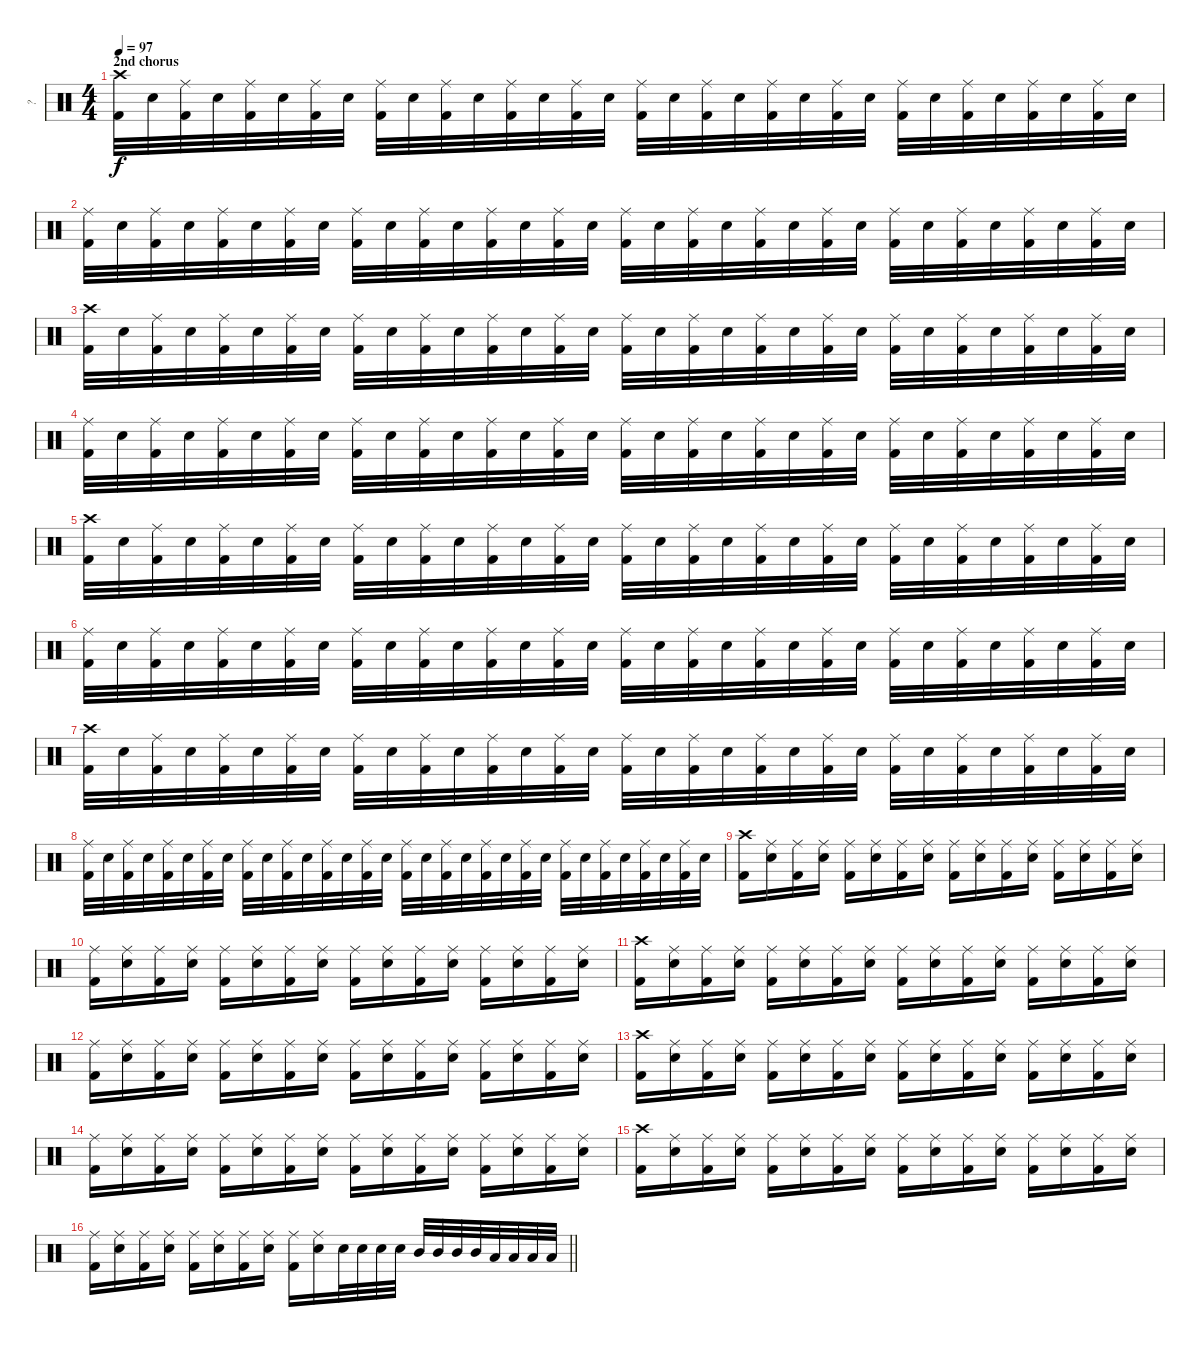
\track ("?" "?") {instrument percussion}
\staff {score}
\articulation defaults
\ts (4 4)
\section ("" "2nd chorus")
\tempo 97
\clef neutral
\ks c
("Crash high (hit)" "Kick (hit) 2").32{dy f} "Electric Snare (hit)".32 ("Ride (middle)" "Kick (hit) 2").32 "Electric Snare (hit)".32 ("Ride (middle)" "Kick (hit) 2").32 "Electric Snare (hit)".32 ("Ride (middle)" "Kick (hit) 2").32 "Electric Snare (hit)".32 ("Ride (middle)" "Kick (hit) 2").32 "Electric Snare (hit)".32 ("Ride (middle)" "Kick (hit) 2").32 "Electric Snare (hit)".32 ("Ride (middle)" "Kick (hit) 2").32 "Electric Snare (hit)".32 ("Ride (middle)" "Kick (hit) 2").32 "Electric Snare (hit)".32 ("Ride (middle)" "Kick (hit) 2").32 "Electric Snare (hit)".32 ("Ride (middle)" "Kick (hit) 2").32 "Electric Snare (hit)".32 ("Ride (middle)" "Kick (hit) 2").32 "Electric Snare (hit)".32 ("Ride (middle)" "Kick (hit) 2").32 "Electric Snare (hit)".32 ("Ride (middle)" "Kick (hit) 2").32 "Electric Snare (hit)".32 ("Ride (middle)" "Kick (hit) 2").32 "Electric Snare (hit)".32 ("Ride (middle)" "Kick (hit) 2").32 "Electric Snare (hit)".32 ("Ride (middle)" "Kick (hit) 2").32 "Electric Snare (hit)".32 |
("Ride (middle)" "Kick (hit) 2").32 "Electric Snare (hit)".32 ("Ride (middle)" "Kick (hit) 2").32 "Electric Snare (hit)".32 ("Ride (middle)" "Kick (hit) 2").32 "Electric Snare (hit)".32 ("Ride (middle)" "Kick (hit) 2").32 "Electric Snare (hit)".32 ("Ride (middle)" "Kick (hit) 2").32 "Electric Snare (hit)".32 ("Ride (middle)" "Kick (hit) 2").32 "Electric Snare (hit)".32 ("Ride (middle)" "Kick (hit) 2").32 "Electric Snare (hit)".32 ("Ride (middle)" "Kick (hit) 2").32 "Electric Snare (hit)".32 ("Ride (middle)" "Kick (hit) 2").32 "Electric Snare (hit)".32 ("Ride (middle)" "Kick (hit) 2").32 "Electric Snare (hit)".32 ("Ride (middle)" "Kick (hit) 2").32 "Electric Snare (hit)".32 ("Ride (middle)" "Kick (hit) 2").32 "Electric Snare (hit)".32 ("Ride (middle)" "Kick (hit) 2").32 "Electric Snare (hit)".32 ("Ride (middle)" "Kick (hit) 2").32 "Electric Snare (hit)".32 ("Ride (middle)" "Kick (hit) 2").32 "Electric Snare (hit)".32 ("Ride (middle)" "Kick (hit) 2").32 "Electric Snare (hit)".32 |
("Crash high (hit)" "Kick (hit) 2").32 "Electric Snare (hit)".32 ("Ride (middle)" "Kick (hit) 2").32 "Electric Snare (hit)".32 ("Ride (middle)" "Kick (hit) 2").32 "Electric Snare (hit)".32 ("Ride (middle)" "Kick (hit) 2").32 "Electric Snare (hit)".32 ("Ride (middle)" "Kick (hit) 2").32 "Electric Snare (hit)".32 ("Ride (middle)" "Kick (hit) 2").32 "Electric Snare (hit)".32 ("Ride (middle)" "Kick (hit) 2").32 "Electric Snare (hit)".32 ("Ride (middle)" "Kick (hit) 2").32 "Electric Snare (hit)".32 ("Ride (middle)" "Kick (hit) 2").32 "Electric Snare (hit)".32 ("Ride (middle)" "Kick (hit) 2").32 "Electric Snare (hit)".32 ("Ride (middle)" "Kick (hit) 2").32 "Electric Snare (hit)".32 ("Ride (middle)" "Kick (hit) 2").32 "Electric Snare (hit)".32 ("Ride (middle)" "Kick (hit) 2").32 "Electric Snare (hit)".32 ("Ride (middle)" "Kick (hit) 2").32 "Electric Snare (hit)".32 ("Ride (middle)" "Kick (hit) 2").32 "Electric Snare (hit)".32 ("Ride (middle)" "Kick (hit) 2").32 "Electric Snare (hit)".32 |
("Ride (middle)" "Kick (hit) 2").32 "Electric Snare (hit)".32 ("Ride (middle)" "Kick (hit) 2").32 "Electric Snare (hit)".32 ("Ride (middle)" "Kick (hit) 2").32 "Electric Snare (hit)".32 ("Ride (middle)" "Kick (hit) 2").32 "Electric Snare (hit)".32 ("Ride (middle)" "Kick (hit) 2").32 "Electric Snare (hit)".32 ("Ride (middle)" "Kick (hit) 2").32 "Electric Snare (hit)".32 ("Ride (middle)" "Kick (hit) 2").32 "Electric Snare (hit)".32 ("Ride (middle)" "Kick (hit) 2").32 "Electric Snare (hit)".32 ("Ride (middle)" "Kick (hit) 2").32 "Electric Snare (hit)".32 ("Ride (middle)" "Kick (hit) 2").32 "Electric Snare (hit)".32 ("Ride (middle)" "Kick (hit) 2").32 "Electric Snare (hit)".32 ("Ride (middle)" "Kick (hit) 2").32 "Electric Snare (hit)".32 ("Ride (middle)" "Kick (hit) 2").32 "Electric Snare (hit)".32 ("Ride (middle)" "Kick (hit) 2").32 "Electric Snare (hit)".32 ("Ride (middle)" "Kick (hit) 2").32 "Electric Snare (hit)".32 ("Ride (middle)" "Kick (hit) 2").32 "Electric Snare (hit)".32 |
("Crash high (hit)" "Kick (hit) 2").32 "Electric Snare (hit)".32 ("Ride (middle)" "Kick (hit) 2").32 "Electric Snare (hit)".32 ("Ride (middle)" "Kick (hit) 2").32 "Electric Snare (hit)".32 ("Ride (middle)" "Kick (hit) 2").32 "Electric Snare (hit)".32 ("Ride (middle)" "Kick (hit) 2").32 "Electric Snare (hit)".32 ("Ride (middle)" "Kick (hit) 2").32 "Electric Snare (hit)".32 ("Ride (middle)" "Kick (hit) 2").32 "Electric Snare (hit)".32 ("Ride (middle)" "Kick (hit) 2").32 "Electric Snare (hit)".32 ("Ride (middle)" "Kick (hit) 2").32 "Electric Snare (hit)".32 ("Ride (middle)" "Kick (hit) 2").32 "Electric Snare (hit)".32 ("Ride (middle)" "Kick (hit) 2").32 "Electric Snare (hit)".32 ("Ride (middle)" "Kick (hit) 2").32 "Electric Snare (hit)".32 ("Ride (middle)" "Kick (hit) 2").32 "Electric Snare (hit)".32 ("Ride (middle)" "Kick (hit) 2").32 "Electric Snare (hit)".32 ("Ride (middle)" "Kick (hit) 2").32 "Electric Snare (hit)".32 ("Ride (middle)" "Kick (hit) 2").32 "Electric Snare (hit)".32 |
("Ride (middle)" "Kick (hit) 2").32 "Electric Snare (hit)".32 ("Ride (middle)" "Kick (hit) 2").32 "Electric Snare (hit)".32 ("Ride (middle)" "Kick (hit) 2").32 "Electric Snare (hit)".32 ("Ride (middle)" "Kick (hit) 2").32 "Electric Snare (hit)".32 ("Ride (middle)" "Kick (hit) 2").32 "Electric Snare (hit)".32 ("Ride (middle)" "Kick (hit) 2").32 "Electric Snare (hit)".32 ("Ride (middle)" "Kick (hit) 2").32 "Electric Snare (hit)".32 ("Ride (middle)" "Kick (hit) 2").32 "Electric Snare (hit)".32 ("Ride (middle)" "Kick (hit) 2").32 "Electric Snare (hit)".32 ("Ride (middle)" "Kick (hit) 2").32 "Electric Snare (hit)".32 ("Ride (middle)" "Kick (hit) 2").32 "Electric Snare (hit)".32 ("Ride (middle)" "Kick (hit) 2").32 "Electric Snare (hit)".32 ("Ride (middle)" "Kick (hit) 2").32 "Electric Snare (hit)".32 ("Ride (middle)" "Kick (hit) 2").32 "Electric Snare (hit)".32 ("Ride (middle)" "Kick (hit) 2").32 "Electric Snare (hit)".32 ("Ride (middle)" "Kick (hit) 2").32 "Electric Snare (hit)".32 |
("Crash high (hit)" "Kick (hit) 2").32 "Electric Snare (hit)".32 ("Ride (middle)" "Kick (hit) 2").32 "Electric Snare (hit)".32 ("Ride (middle)" "Kick (hit) 2").32 "Electric Snare (hit)".32 ("Ride (middle)" "Kick (hit) 2").32 "Electric Snare (hit)".32 ("Ride (middle)" "Kick (hit) 2").32 "Electric Snare (hit)".32 ("Ride (middle)" "Kick (hit) 2").32 "Electric Snare (hit)".32 ("Ride (middle)" "Kick (hit) 2").32 "Electric Snare (hit)".32 ("Ride (middle)" "Kick (hit) 2").32 "Electric Snare (hit)".32 ("Ride (middle)" "Kick (hit) 2").32 "Electric Snare (hit)".32 ("Ride (middle)" "Kick (hit) 2").32 "Electric Snare (hit)".32 ("Ride (middle)" "Kick (hit) 2").32 "Electric Snare (hit)".32 ("Ride (middle)" "Kick (hit) 2").32 "Electric Snare (hit)".32 ("Ride (middle)" "Kick (hit) 2").32 "Electric Snare (hit)".32 ("Ride (middle)" "Kick (hit) 2").32 "Electric Snare (hit)".32 ("Ride (middle)" "Kick (hit) 2").32 "Electric Snare (hit)".32 ("Ride (middle)" "Kick (hit) 2").32 "Electric Snare (hit)".32 |
("Ride (middle)" "Kick (hit) 2").32 "Electric Snare (hit)".32 ("Ride (middle)" "Kick (hit) 2").32 "Electric Snare (hit)".32 ("Ride (middle)" "Kick (hit) 2").32 "Electric Snare (hit)".32 ("Ride (middle)" "Kick (hit) 2").32 "Electric Snare (hit)".32 ("Ride (middle)" "Kick (hit) 2").32 "Electric Snare (hit)".32 ("Ride (middle)" "Kick (hit) 2").32 "Electric Snare (hit)".32 ("Ride (middle)" "Kick (hit) 2").32 "Electric Snare (hit)".32 ("Ride (middle)" "Kick (hit) 2").32 "Electric Snare (hit)".32 ("Ride (middle)" "Kick (hit) 2").32 "Electric Snare (hit)".32 ("Ride (middle)" "Kick (hit) 2").32 "Electric Snare (hit)".32 ("Ride (middle)" "Kick (hit) 2").32 "Electric Snare (hit)".32 ("Ride (middle)" "Kick (hit) 2").32 "Electric Snare (hit)".32 ("Ride (middle)" "Kick (hit) 2").32 "Electric Snare (hit)".32 ("Ride (middle)" "Kick (hit) 2").32 "Electric Snare (hit)".32 ("Ride (middle)" "Kick (hit) 2").32 "Electric Snare (hit)".32 ("Ride (middle)" "Kick (hit) 2").32 "Electric Snare (hit)".32 |
("Crash high (hit)" "Kick (hit) 2").16 ("Ride (middle)" "Electric Snare (hit)").16 ("Ride (middle)" "Kick (hit) 2").16 ("Ride (middle)" "Electric Snare (hit)").16 ("Ride (middle)" "Kick (hit) 2").16 ("Ride (middle)" "Electric Snare (hit)").16 ("Ride (middle)" "Kick (hit) 2").16 ("Ride (middle)" "Electric Snare (hit)").16 ("Ride (middle)" "Kick (hit) 2").16 ("Ride (middle)" "Electric Snare (hit)").16 ("Ride (middle)" "Kick (hit) 2").16 ("Ride (middle)" "Electric Snare (hit)").16 ("Ride (middle)" "Kick (hit) 2").16 ("Ride (middle)" "Electric Snare (hit)").16 ("Ride (middle)" "Kick (hit) 2").16 ("Ride (middle)" "Electric Snare (hit)").16 |
("Ride (middle)" "Kick (hit) 2").16 ("Ride (middle)" "Electric Snare (hit)").16 ("Ride (middle)" "Kick (hit) 2").16 ("Ride (middle)" "Electric Snare (hit)").16 ("Ride (middle)" "Kick (hit) 2").16 ("Ride (middle)" "Electric Snare (hit)").16 ("Ride (middle)" "Kick (hit) 2").16 ("Ride (middle)" "Electric Snare (hit)").16 ("Ride (middle)" "Kick (hit) 2").16 ("Ride (middle)" "Electric Snare (hit)").16 ("Ride (middle)" "Kick (hit) 2").16 ("Ride (middle)" "Electric Snare (hit)").16 ("Ride (middle)" "Kick (hit) 2").16 ("Ride (middle)" "Electric Snare (hit)").16 ("Ride (middle)" "Kick (hit) 2").16 ("Ride (middle)" "Electric Snare (hit)").16 |
("Crash high (hit)" "Kick (hit) 2").16 ("Ride (middle)" "Electric Snare (hit)").16 ("Ride (middle)" "Kick (hit) 2").16 ("Ride (middle)" "Electric Snare (hit)").16 ("Ride (middle)" "Kick (hit) 2").16 ("Ride (middle)" "Electric Snare (hit)").16 ("Ride (middle)" "Kick (hit) 2").16 ("Ride (middle)" "Electric Snare (hit)").16 ("Ride (middle)" "Kick (hit) 2").16 ("Ride (middle)" "Electric Snare (hit)").16 ("Ride (middle)" "Kick (hit) 2").16 ("Ride (middle)" "Electric Snare (hit)").16 ("Ride (middle)" "Kick (hit) 2").16 ("Ride (middle)" "Electric Snare (hit)").16 ("Ride (middle)" "Kick (hit) 2").16 ("Ride (middle)" "Electric Snare (hit)").16 |
("Ride (middle)" "Kick (hit) 2").16 ("Ride (middle)" "Electric Snare (hit)").16 ("Ride (middle)" "Kick (hit) 2").16 ("Ride (middle)" "Electric Snare (hit)").16 ("Ride (middle)" "Kick (hit) 2").16 ("Ride (middle)" "Electric Snare (hit)").16 ("Ride (middle)" "Kick (hit) 2").16 ("Ride (middle)" "Electric Snare (hit)").16 ("Ride (middle)" "Kick (hit) 2").16 ("Ride (middle)" "Electric Snare (hit)").16 ("Ride (middle)" "Kick (hit) 2").16 ("Ride (middle)" "Electric Snare (hit)").16 ("Ride (middle)" "Kick (hit) 2").16 ("Ride (middle)" "Electric Snare (hit)").16 ("Ride (middle)" "Kick (hit) 2").16 ("Ride (middle)" "Electric Snare (hit)").16 |
("Crash high (hit)" "Kick (hit) 2").16 ("Ride (middle)" "Electric Snare (hit)").16 ("Ride (middle)" "Kick (hit) 2").16 ("Ride (middle)" "Electric Snare (hit)").16 ("Ride (middle)" "Kick (hit) 2").16 ("Ride (middle)" "Electric Snare (hit)").16 ("Ride (middle)" "Kick (hit) 2").16 ("Ride (middle)" "Electric Snare (hit)").16 ("Ride (middle)" "Kick (hit) 2").16 ("Ride (middle)" "Electric Snare (hit)").16 ("Ride (middle)" "Kick (hit) 2").16 ("Ride (middle)" "Electric Snare (hit)").16 ("Ride (middle)" "Kick (hit) 2").16 ("Ride (middle)" "Electric Snare (hit)").16 ("Ride (middle)" "Kick (hit) 2").16 ("Ride (middle)" "Electric Snare (hit)").16 |
("Ride (middle)" "Kick (hit) 2").16 ("Ride (middle)" "Electric Snare (hit)").16 ("Ride (middle)" "Kick (hit) 2").16 ("Ride (middle)" "Electric Snare (hit)").16 ("Ride (middle)" "Kick (hit) 2").16 ("Ride (middle)" "Electric Snare (hit)").16 ("Ride (middle)" "Kick (hit) 2").16 ("Ride (middle)" "Electric Snare (hit)").16 ("Ride (middle)" "Kick (hit) 2").16 ("Ride (middle)" "Electric Snare (hit)").16 ("Ride (middle)" "Kick (hit) 2").16 ("Ride (middle)" "Electric Snare (hit)").16 ("Ride (middle)" "Kick (hit) 2").16 ("Ride (middle)" "Electric Snare (hit)").16 ("Ride (middle)" "Kick (hit) 2").16 ("Ride (middle)" "Electric Snare (hit)").16 |
("Crash high (hit)" "Kick (hit) 2").16 ("Ride (middle)" "Electric Snare (hit)").16 ("Ride (middle)" "Kick (hit) 2").16 ("Ride (middle)" "Electric Snare (hit)").16 ("Ride (middle)" "Kick (hit) 2").16 ("Ride (middle)" "Electric Snare (hit)").16 ("Ride (middle)" "Kick (hit) 2").16 ("Ride (middle)" "Electric Snare (hit)").16 ("Ride (middle)" "Kick (hit) 2").16 ("Ride (middle)" "Electric Snare (hit)").16 ("Ride (middle)" "Kick (hit) 2").16 ("Ride (middle)" "Electric Snare (hit)").16 ("Ride (middle)" "Kick (hit) 2").16 ("Ride (middle)" "Electric Snare (hit)").16 ("Ride (middle)" "Kick (hit) 2").16 ("Ride (middle)" "Electric Snare (hit)").16 |
\barLineRight lightlight
("Ride (middle)" "Kick (hit) 2").16 ("Ride (middle)" "Electric Snare (hit)").16 ("Ride (middle)" "Kick (hit) 2").16 ("Ride (middle)" "Electric Snare (hit)").16 ("Ride (middle)" "Kick (hit) 2").16 ("Ride (middle)" "Electric Snare (hit)").16 ("Ride (middle)" "Kick (hit) 2").16 ("Ride (middle)" "Electric Snare (hit)").16 ("Ride (middle)" "Kick (hit) 2").16 ("Ride (middle)" "Electric Snare (hit)").16 "Electric Snare (hit)".32 "Electric Snare (hit)".32 "Electric Snare (hit)".32 "Electric Snare (hit)".32 "Mid Tom (hit)".32 "Mid Tom (hit)".32 "Mid Tom (hit)".32 "Mid Tom (hit)".32 "Low Tom (hit)".32 "Low Tom (hit)".32 "Low Tom (hit)".32 "Low Tom (hit)".32
